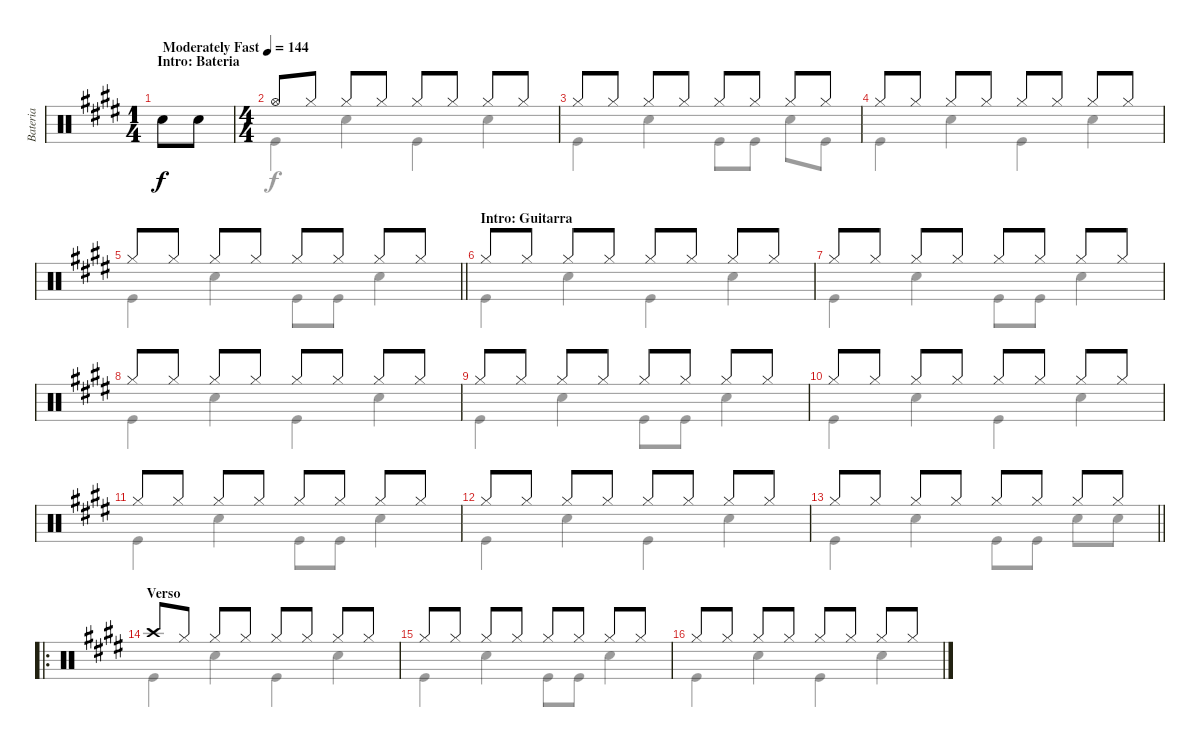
\track ("Bateria" "Bateria") {instrument percussion}
\staff {score}
\articulation defaults
\voice
\ts (1 4)
\section ("" "Intro: Bateria ")
\tempo (144 "Moderately Fast")
\clef neutral
\ks e "Snare (hit) 2".8{dy f} "Snare (hit) 2".8
|
\ts (4 4)
"Hi-Hat (open)".8 "Hi-Hat (closed)".8 "Hi-Hat (closed)".8 "Hi-Hat (closed)".8 "Hi-Hat (closed)".8 "Hi-Hat (closed)".8 "Hi-Hat (closed)".8 "Hi-Hat (closed)".8 |
"Hi-Hat (closed)".8 "Hi-Hat (closed)".8 "Hi-Hat (closed)".8 "Hi-Hat (closed)".8 "Hi-Hat (closed)".8 "Hi-Hat (closed)".8 "Hi-Hat (closed)".8 "Hi-Hat (closed)".8 |
"Hi-Hat (closed)".8 "Hi-Hat (closed)".8 "Hi-Hat (closed)".8 "Hi-Hat (closed)".8 "Hi-Hat (closed)".8 "Hi-Hat (closed)".8 "Hi-Hat (closed)".8 "Hi-Hat (closed)".8 |
\barLineRight lightlight "Hi-Hat (closed)".8 "Hi-Hat (closed)".8 "Hi-Hat (closed)".8 "Hi-Hat (closed)".8 "Hi-Hat (closed)".8 "Hi-Hat (closed)".8 "Hi-Hat (closed)".8 "Hi-Hat (closed)".8
|
\section ("" "Intro: Guitarra")
"Hi-Hat (closed)".8 "Hi-Hat (closed)".8 "Hi-Hat (closed)".8 "Hi-Hat (closed)".8 "Hi-Hat (closed)".8 "Hi-Hat (closed)".8 "Hi-Hat (closed)".8 "Hi-Hat (closed)".8 |
"Hi-Hat (closed)".8 "Hi-Hat (closed)".8 "Hi-Hat (closed)".8 "Hi-Hat (closed)".8 "Hi-Hat (closed)".8 "Hi-Hat (closed)".8 "Hi-Hat (closed)".8 "Hi-Hat (closed)".8 |
"Hi-Hat (closed)".8 "Hi-Hat (closed)".8 "Hi-Hat (closed)".8 "Hi-Hat (closed)".8 "Hi-Hat (closed)".8 "Hi-Hat (closed)".8 "Hi-Hat (closed)".8 "Hi-Hat (closed)".8 |
"Hi-Hat (closed)".8 "Hi-Hat (closed)".8 "Hi-Hat (closed)".8 "Hi-Hat (closed)".8 "Hi-Hat (closed)".8 "Hi-Hat (closed)".8 "Hi-Hat (closed)".8 "Hi-Hat (closed)".8 |
"Hi-Hat (closed)".8 "Hi-Hat (closed)".8 "Hi-Hat (closed)".8 "Hi-Hat (closed)".8 "Hi-Hat (closed)".8 "Hi-Hat (closed)".8 "Hi-Hat (closed)".8 "Hi-Hat (closed)".8 |
"Hi-Hat (closed)".8 "Hi-Hat (closed)".8 "Hi-Hat (closed)".8 "Hi-Hat (closed)".8 "Hi-Hat (closed)".8 "Hi-Hat (closed)".8 "Hi-Hat (closed)".8 "Hi-Hat (closed)".8 |
"Hi-Hat (closed)".8 "Hi-Hat (closed)".8 "Hi-Hat (closed)".8 "Hi-Hat (closed)".8 "Hi-Hat (closed)".8 "Hi-Hat (closed)".8 "Hi-Hat (closed)".8 "Hi-Hat (closed)".8 |
\barLineRight lightlight "Hi-Hat (closed)".8 "Hi-Hat (closed)".8 "Hi-Hat (closed)".8 "Hi-Hat (closed)".8 "Hi-Hat (closed)".8 "Hi-Hat (closed)".8 "Hi-Hat (closed)".8 "Hi-Hat (closed)".8
|
\ro
\section ("" "Verso")
"Crash high (hit)".8 "Hi-Hat (closed)".8 "Hi-Hat (closed)".8 "Hi-Hat (closed)".8 "Hi-Hat (closed)".8 "Hi-Hat (closed)".8 "Hi-Hat (closed)".8 "Hi-Hat (closed)".8 |
"Hi-Hat (closed)".8 "Hi-Hat (closed)".8 "Hi-Hat (closed)".8 "Hi-Hat (closed)".8 "Hi-Hat (closed)".8 "Hi-Hat (closed)".8 "Hi-Hat (closed)".8 "Hi-Hat (closed)".8 |
"Hi-Hat (closed)".8 "Hi-Hat (closed)".8 "Hi-Hat (closed)".8 "Hi-Hat (closed)".8 "Hi-Hat (closed)".8 "Hi-Hat (closed)".8 "Hi-Hat (closed)".8 "Hi-Hat (closed)".8
\voice
\clef neutral
\ottava regular
\simile none
\ks e
|
"Kick (hit)".4 "Snare (hit) 2".4 "Kick (hit)".4 "Snare (hit) 2".4 |
"Kick (hit)".4 "Snare (hit) 2".4 "Kick (hit)".8 "Kick (hit)".8 "Snare (hit) 2".8 "Kick (hit)".8 |
"Kick (hit)".4 "Snare (hit) 2".4 "Kick (hit)".4 "Snare (hit) 2".4 |
\barLineRight lightlight "Kick (hit)".4 "Snare (hit) 2".4 "Kick (hit)".8 "Kick (hit)".8 "Snare (hit) 2".4
|
"Kick (hit)".4 "Snare (hit) 2".4 "Kick (hit)".4 "Snare (hit) 2".4 |
"Kick (hit)".4 "Snare (hit) 2".4 "Kick (hit)".8 "Kick (hit)".8 "Snare (hit) 2".4 |
"Kick (hit)".4 "Snare (hit) 2".4 "Kick (hit)".4 "Snare (hit) 2".4 |
"Kick (hit)".4 "Snare (hit) 2".4 "Kick (hit)".8 "Kick (hit)".8 "Snare (hit) 2".4 |
"Kick (hit)".4 "Snare (hit) 2".4 "Kick (hit)".4 "Snare (hit) 2".4 |
"Kick (hit)".4 "Snare (hit) 2".4 "Kick (hit)".8 "Kick (hit)".8 "Snare (hit) 2".4 |
"Kick (hit)".4 "Snare (hit) 2".4 "Kick (hit)".4 "Snare (hit) 2".4 |
\barLineRight lightlight "Kick (hit)".4 "Snare (hit) 2".4 "Kick (hit)".8 "Kick (hit)".8 "Snare (hit) 2".8 "Snare (hit) 2".8
|
"Kick (hit)".4 "Snare (hit) 2".4 "Kick (hit)".4 "Snare (hit) 2".4 |
"Kick (hit)".4 "Snare (hit) 2".4 "Kick (hit)".8 "Kick (hit)".8 "Snare (hit) 2".4 |
"Kick (hit)".4 "Snare (hit) 2".4 "Kick (hit)".4 "Snare (hit) 2".4
